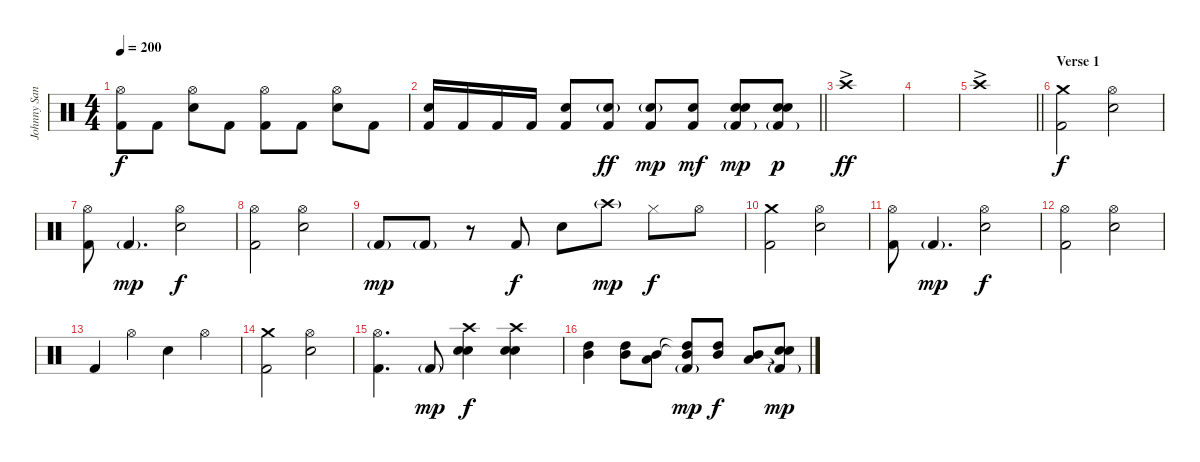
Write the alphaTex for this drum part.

\track ("Johnny Sandin" "Johnny San") {instrument percussion}
\staff {score}
\articulation defaults
\ts (4 4)
\tempo 200
\clef neutral
\ks c
("Hi-Hat (open)" "Kick (hit) 2").8{dy f} "Kick (hit) 2".8 ("Hi-Hat (open)" "Snare (hit) 2").8 "Kick (hit) 2".8 ("Hi-Hat (open)" "Kick (hit) 2").8 "Kick (hit) 2".8 ("Hi-Hat (open)" "Snare (hit) 2").8 "Kick (hit) 2".8 |
\barLineRight lightlight
("Snare (hit) 2" "Kick (hit) 2").16 "Kick (hit) 2".16 "Kick (hit) 2".16 "Kick (hit) 2".16 ("Snare (hit) 2" "Kick (hit) 2").8 ("Snare (hit) 2"{g} "Kick (hit) 2").8{dy ff} ("Snare (hit) 2"{g} "Kick (hit) 2").8{dy mp} ("Snare (hit) 2" "Kick (hit) 2").8{dy mf} ("Snare (hit) 2" "Snare (hit) 2" "Kick (hit) 2"{g}).8{dy mp} ("Snare (hit) 2" "Snare (hit) 2" "Kick (hit) 2"{g}).8{dy p} |
"Crash high (hit)"{ac}.1{dy ff} |
|
\barLineRight lightlight "Crash high (hit)"{ac}.1
|
\section ("" "Verse 1")
("Crash medium (hit)" "Kick (hit) 2").2{dy f} ("Hi-Hat (open)" "Snare (hit) 2").2 |
("Hi-Hat (open)" "Kick (hit) 2").8 "Kick (hit) 2"{g}.4{d dy mp} ("Hi-Hat (open)" "Snare (hit) 2").2{dy f} |
("Hi-Hat (open)" "Kick (hit) 2").2 ("Hi-Hat (open)" "Snare (hit) 2").2 |
"Kick (hit) 2"{g}.8{dy mp} "Kick (hit) 2"{g}.8 r.8 "Kick (hit) 2".8{dy f} "Snare (hit) 2".8 "Crash high (hit)"{g}.8{dy mp} "Hi-Hat (closed)".8{dy f} "Hi-Hat (open)".8 |
("Crash medium (hit)" "Kick (hit) 2").2 ("Hi-Hat (open)" "Snare (hit) 2").2 |
("Hi-Hat (open)" "Kick (hit) 2").8 "Kick (hit) 2"{g}.4{d dy mp} ("Hi-Hat (open)" "Snare (hit) 2").2{dy f} |
("Hi-Hat (open)" "Kick (hit) 2").2 ("Hi-Hat (open)" "Snare (hit) 2").2 |
"Kick (hit) 2".4 "Hi-Hat (open)".4 "Snare (hit) 2".4 "Hi-Hat (open)".4 |
("Crash medium (hit)" "Kick (hit) 2").2 ("Hi-Hat (open)" "Snare (hit) 2").2 |
("Hi-Hat (open)" "Kick (hit) 2").4{d} "Kick (hit) 2"{g}.8{dy mp} ("Crash high (hit)" "Snare (hit) 2" "Snare (hit) 2").4{dy f} ("Crash high (hit)" "Snare (hit) 2" "Snare (hit) 2").4 |
("High Tom (hit)" "Mid Tom (hit)").4 ("High Tom (hit)" "Mid Tom (hit)").8 ("Mid Tom (hit)" "Low Tom (hit)").8 ("High Tom (hit)"{t} "Mid Tom (hit)"{t} "Kick (hit) 2"{g}).8{dy mp} ("High Tom (hit)" "Mid Tom (hit)").8{dy f} ("Mid Tom (hit)" "Low Tom (hit)").8 ("Snare (hit)"{t} "Snare (hit)"{t} "Kick (hit) 2"{g}).8{dy mp}
